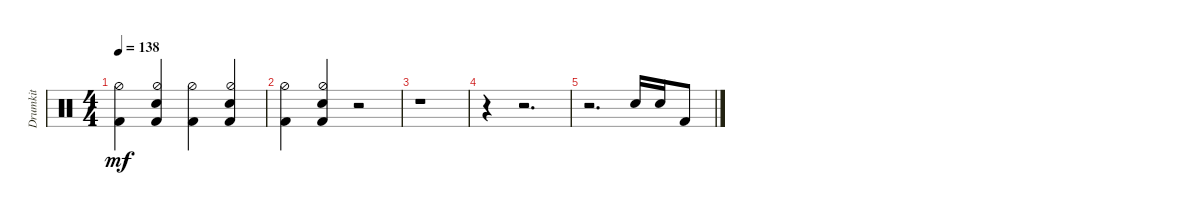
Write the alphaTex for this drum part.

\track ("Drumkit" "Drumkit") {instrument percussion}
\staff {score}
\articulation defaults
\ts (4 4)
\tempo 138
\clef neutral
\ks c
("Kick (hit) 2" "Hi-Hat (half)").4{dy mf} ("Kick (hit) 2" "Snare (hit) 2" "Hi-Hat (half)").4 ("Kick (hit) 2" "Hi-Hat (half)").4 ("Kick (hit) 2" "Snare (hit) 2" "Hi-Hat (half)").4 |
("Kick (hit) 2" "Hi-Hat (half)").4 ("Kick (hit) 2" "Snare (hit) 2" "Hi-Hat (half)").4 r.2 |
r.1 |
r.4 r.2{d} |
r.2{d} "Snare (hit) 2".16 "Snare (hit) 2".16 "Kick (hit) 2".8
